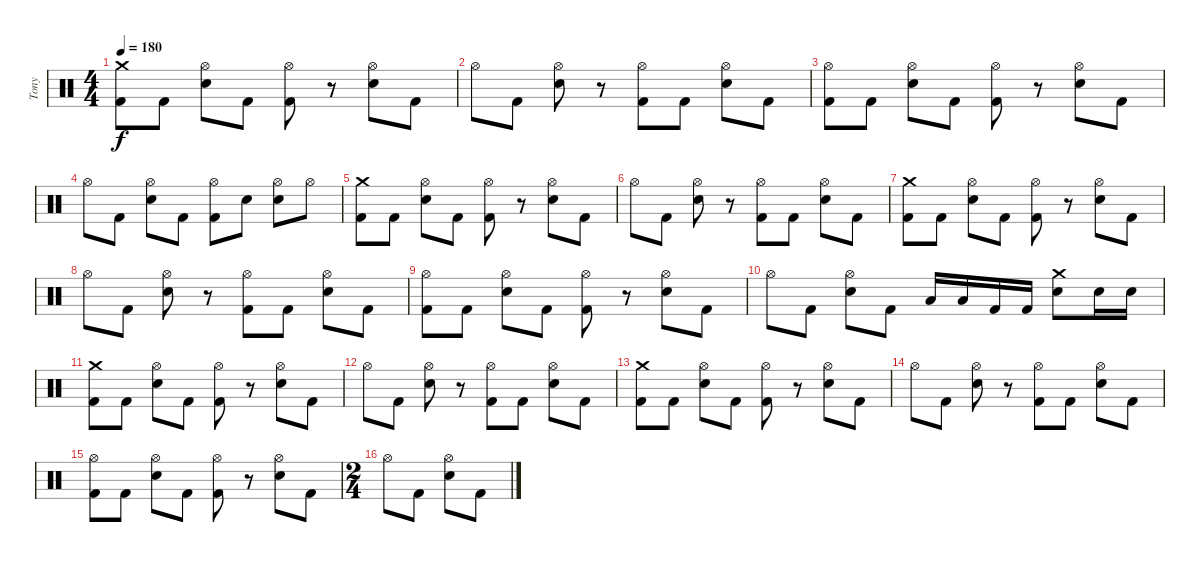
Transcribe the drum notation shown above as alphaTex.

\track ("Tony" "Tony") {instrument percussion}
\staff {score}
\articulation defaults
\ts (4 4)
\tempo 180
\clef neutral
\ks c
("Crash medium (hit)" "Kick (hit) 2").8{dy f} "Kick (hit) 2".8 ("Hi-Hat (open)" "Electric Snare (hit)").8 "Kick (hit) 2".8 ("Hi-Hat (open)" "Kick (hit) 2").8 r.8 ("Hi-Hat (open)" "Electric Snare (hit)").8 "Kick (hit) 2".8 |
"Hi-Hat (open)".8 "Kick (hit) 2".8 ("Hi-Hat (open)" "Electric Snare (hit)").8 r.8 ("Hi-Hat (open)" "Kick (hit) 2").8 "Kick (hit) 2".8 ("Hi-Hat (open)" "Electric Snare (hit)").8 "Kick (hit) 2".8 |
("Hi-Hat (open)" "Kick (hit) 2").8 "Kick (hit) 2".8 ("Hi-Hat (open)" "Electric Snare (hit)").8 "Kick (hit) 2".8 ("Hi-Hat (open)" "Kick (hit) 2").8 r.8 ("Hi-Hat (open)" "Electric Snare (hit)").8 "Kick (hit) 2".8 |
"Hi-Hat (open)".8 "Kick (hit) 2".8 ("Hi-Hat (open)" "Electric Snare (hit)").8 "Kick (hit) 2".8 ("Hi-Hat (open)" "Kick (hit) 2").8 "Electric Snare (hit)".8 ("Hi-Hat (open)" "Electric Snare (hit)").8 "Hi-Hat (open)".8 |
("Crash medium (hit)" "Kick (hit) 2").8 "Kick (hit) 2".8 ("Hi-Hat (open)" "Electric Snare (hit)").8 "Kick (hit) 2".8 ("Hi-Hat (open)" "Kick (hit) 2").8 r.8 ("Hi-Hat (open)" "Electric Snare (hit)").8 "Kick (hit) 2".8 |
"Hi-Hat (open)".8 "Kick (hit) 2".8 ("Hi-Hat (open)" "Electric Snare (hit)").8 r.8 ("Hi-Hat (open)" "Kick (hit) 2").8 "Kick (hit) 2".8 ("Hi-Hat (open)" "Electric Snare (hit)").8 "Kick (hit) 2".8 |
("Crash medium (hit)" "Kick (hit) 2").8 "Kick (hit) 2".8 ("Hi-Hat (open)" "Electric Snare (hit)").8 "Kick (hit) 2".8 ("Hi-Hat (open)" "Kick (hit) 2").8 r.8 ("Hi-Hat (open)" "Electric Snare (hit)").8 "Kick (hit) 2".8 |
"Hi-Hat (open)".8 "Kick (hit) 2".8 ("Hi-Hat (open)" "Electric Snare (hit)").8 r.8 ("Hi-Hat (open)" "Kick (hit) 2").8 "Kick (hit) 2".8 ("Hi-Hat (open)" "Electric Snare (hit)").8 "Kick (hit) 2".8 |
("Hi-Hat (open)" "Kick (hit) 2").8 "Kick (hit) 2".8 ("Hi-Hat (open)" "Electric Snare (hit)").8 "Kick (hit) 2".8 ("Hi-Hat (open)" "Kick (hit) 2").8 r.8 ("Hi-Hat (open)" "Electric Snare (hit)").8 "Kick (hit) 2".8 |
"Hi-Hat (open)".8 "Kick (hit) 2".8 ("Hi-Hat (open)" "Electric Snare (hit)").8 "Kick (hit) 2".8 "Low Floor Tom (hit)".16 "Low Floor Tom (hit)".16 "Kick (hit) 2".16 "Kick (hit) 2".16 ("Crash medium (hit)" "Electric Snare (hit)").8 "Electric Snare (hit)".16 "Electric Snare (hit)".16 |
("Crash medium (hit)" "Kick (hit) 2").8 "Kick (hit) 2".8 ("Hi-Hat (open)" "Electric Snare (hit)").8 "Kick (hit) 2".8 ("Hi-Hat (open)" "Kick (hit) 2").8 r.8 ("Hi-Hat (open)" "Electric Snare (hit)").8 "Kick (hit) 2".8 |
"Hi-Hat (open)".8 "Kick (hit) 2".8 ("Hi-Hat (open)" "Electric Snare (hit)").8 r.8 ("Hi-Hat (open)" "Kick (hit) 2").8 "Kick (hit) 2".8 ("Hi-Hat (open)" "Electric Snare (hit)").8 "Kick (hit) 2".8 |
("Crash medium (hit)" "Kick (hit) 2").8 "Kick (hit) 2".8 ("Hi-Hat (open)" "Electric Snare (hit)").8 "Kick (hit) 2".8 ("Hi-Hat (open)" "Kick (hit) 2").8 r.8 ("Hi-Hat (open)" "Electric Snare (hit)").8 "Kick (hit) 2".8 |
"Hi-Hat (open)".8 "Kick (hit) 2".8 ("Hi-Hat (open)" "Electric Snare (hit)").8 r.8 ("Hi-Hat (open)" "Kick (hit) 2").8 "Kick (hit) 2".8 ("Hi-Hat (open)" "Electric Snare (hit)").8 "Kick (hit) 2".8 |
("Hi-Hat (open)" "Kick (hit) 2").8 "Kick (hit) 2".8 ("Hi-Hat (open)" "Electric Snare (hit)").8 "Kick (hit) 2".8 ("Hi-Hat (open)" "Kick (hit) 2").8 r.8 ("Hi-Hat (open)" "Electric Snare (hit)").8 "Kick (hit) 2".8 |
\ts (2 4)
"Hi-Hat (open)".8 "Kick (hit) 2".8 ("Hi-Hat (open)" "Electric Snare (hit)").8 "Kick (hit) 2".8
